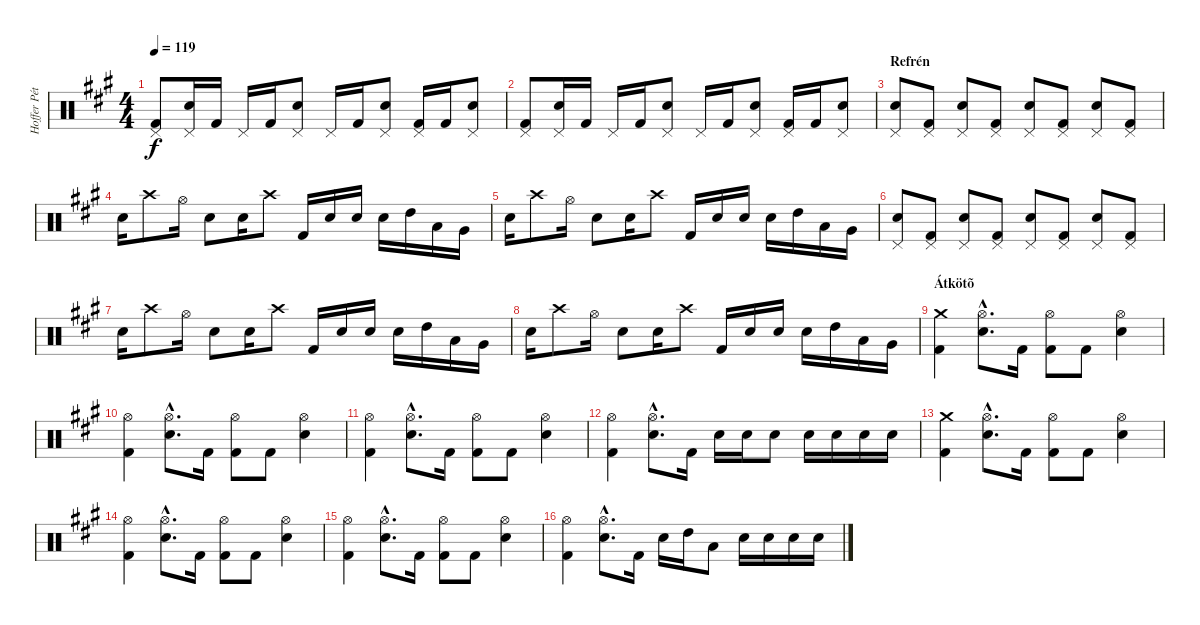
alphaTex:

\track ("Hoffer Péter" "Hoffer Pét") {instrument percussion}
\staff {score}
\articulation defaults
\ts (4 4)
\tempo 119
\clef neutral
\ks f#minor
("Pedal Hi-Hat (hit)" "Kick (hit) 2").8{dy f} ("Pedal Hi-Hat (hit)" "Snare (hit) 2").16 "Kick (hit) 2".16 "Pedal Hi-Hat (hit)".16 "Kick (hit) 2".16 ("Pedal Hi-Hat (hit)" "Snare (hit) 2").8 "Pedal Hi-Hat (hit)".16 "Kick (hit) 2".16 ("Pedal Hi-Hat (hit)" "Snare (hit) 2").8 ("Pedal Hi-Hat (hit)" "Kick (hit) 2").16 "Kick (hit) 2".16 ("Pedal Hi-Hat (hit)" "Snare (hit) 2").8 |
("Pedal Hi-Hat (hit)" "Kick (hit) 2").8 ("Pedal Hi-Hat (hit)" "Snare (hit) 2").16 "Kick (hit) 2".16 "Pedal Hi-Hat (hit)".16 "Kick (hit) 2".16 ("Pedal Hi-Hat (hit)" "Snare (hit) 2").8 "Pedal Hi-Hat (hit)".16 "Kick (hit) 2".16 ("Pedal Hi-Hat (hit)" "Snare (hit) 2").8 ("Pedal Hi-Hat (hit)" "Kick (hit) 2").16 "Kick (hit) 2".16 ("Pedal Hi-Hat (hit)" "Snare (hit) 2").8 |
\section ("" "Refrén")
("Pedal Hi-Hat (hit)" "Snare (hit) 2").8 ("Pedal Hi-Hat (hit)" "Kick (hit) 2").8 ("Pedal Hi-Hat (hit)" "Snare (hit) 2").8 ("Pedal Hi-Hat (hit)" "Kick (hit) 2").8 ("Pedal Hi-Hat (hit)" "Snare (hit) 2").8 ("Pedal Hi-Hat (hit)" "Kick (hit) 2").8 ("Pedal Hi-Hat (hit)" "Snare (hit) 2").8 ("Pedal Hi-Hat (hit)" "Kick (hit) 2").8 |
"Snare (hit) 2".16 "Crash high (hit)".8 "Hi-Hat (open)".16 "Snare (hit) 2".8 "Snare (hit) 2".16 "Crash high (hit)".8 "Kick (hit) 2".16 "Snare (hit) 2".16 "Snare (hit) 2".16 "Snare (hit) 2".16 "High Tom (hit)".16 "Low Tom (hit)".16 "Very Low Tom (hit)".16 |
"Snare (hit) 2".16 "Crash high (hit)".8 "Hi-Hat (open)".16 "Snare (hit) 2".8 "Snare (hit) 2".16 "Crash high (hit)".8 "Kick (hit) 2".16 "Snare (hit) 2".16 "Snare (hit) 2".16 "Snare (hit) 2".16 "High Tom (hit)".16 "Low Tom (hit)".16 "Very Low Tom (hit)".16 |
("Pedal Hi-Hat (hit)" "Snare (hit) 2").8 ("Pedal Hi-Hat (hit)" "Kick (hit) 2").8 ("Pedal Hi-Hat (hit)" "Snare (hit) 2").8 ("Pedal Hi-Hat (hit)" "Kick (hit) 2").8 ("Pedal Hi-Hat (hit)" "Snare (hit) 2").8 ("Pedal Hi-Hat (hit)" "Kick (hit) 2").8 ("Pedal Hi-Hat (hit)" "Snare (hit) 2").8 ("Pedal Hi-Hat (hit)" "Kick (hit) 2").8 |
"Snare (hit) 2".16 "Crash high (hit)".8 "Hi-Hat (open)".16 "Snare (hit) 2".8 "Snare (hit) 2".16 "Crash high (hit)".8 "Kick (hit) 2".16 "Snare (hit) 2".16 "Snare (hit) 2".16 "Snare (hit) 2".16 "High Tom (hit)".16 "Low Tom (hit)".16 "Very Low Tom (hit)".16 |
"Snare (hit) 2".16 "Crash high (hit)".8 "Hi-Hat (open)".16 "Snare (hit) 2".8 "Snare (hit) 2".16 "Crash high (hit)".8 "Kick (hit) 2".16 "Snare (hit) 2".16 "Snare (hit) 2".16 "Snare (hit) 2".16 "High Tom (hit)".16 "Low Tom (hit)".16 "Very Low Tom (hit)".16 |
\section ("" "Átkötõ")
("Crash medium (hit)" "Kick (hit) 2").4 ("Hi-Hat (open)"{hac} "Snare (hit) 2"{hac}).8{d} "Kick (hit) 2".16 ("Hi-Hat (open)" "Kick (hit) 2").8 "Kick (hit) 2".8 ("Hi-Hat (open)" "Snare (hit) 2").4 |
("Hi-Hat (open)" "Kick (hit) 2").4 ("Hi-Hat (open)"{hac} "Snare (hit) 2"{hac}).8{d} "Kick (hit) 2".16 ("Hi-Hat (open)" "Kick (hit) 2").8 "Kick (hit) 2".8 ("Hi-Hat (open)" "Snare (hit) 2").4 |
("Hi-Hat (open)" "Kick (hit) 2").4 ("Hi-Hat (open)"{hac} "Snare (hit) 2"{hac}).8{d} "Kick (hit) 2".16 ("Hi-Hat (open)" "Kick (hit) 2").8 "Kick (hit) 2".8 ("Hi-Hat (open)" "Snare (hit) 2").4 |
("Hi-Hat (open)" "Kick (hit) 2").4 ("Hi-Hat (open)"{hac} "Snare (hit) 2"{hac}).8{d} "Kick (hit) 2".16 "Snare (hit) 2".16 "Snare (hit) 2".16 "Snare (hit) 2".8 "Snare (hit) 2".16 "Snare (hit) 2".16 "Snare (hit) 2".16 "Snare (hit) 2".16 |
("Crash medium (hit)" "Kick (hit) 2").4 ("Hi-Hat (open)"{hac} "Snare (hit) 2"{hac}).8{d} "Kick (hit) 2".16 ("Hi-Hat (open)" "Kick (hit) 2").8 "Kick (hit) 2".8 ("Hi-Hat (open)" "Snare (hit) 2").4 |
("Hi-Hat (open)" "Kick (hit) 2").4 ("Hi-Hat (open)"{hac} "Snare (hit) 2"{hac}).8{d} "Kick (hit) 2".16 ("Hi-Hat (open)" "Kick (hit) 2").8 "Kick (hit) 2".8 ("Hi-Hat (open)" "Snare (hit) 2").4 |
("Hi-Hat (open)" "Kick (hit) 2").4 ("Hi-Hat (open)"{hac} "Snare (hit) 2"{hac}).8{d} "Kick (hit) 2".16 ("Hi-Hat (open)" "Kick (hit) 2").8 "Kick (hit) 2".8 ("Hi-Hat (open)" "Snare (hit) 2").4 |
("Hi-Hat (open)" "Kick (hit) 2").4 ("Hi-Hat (open)"{hac} "Snare (hit) 2"{hac}).8{d} "Kick (hit) 2".16 "Snare (hit) 2".16 "High Tom (hit)".16 "Low Tom (hit)".8 "Snare (hit) 2".16 "Snare (hit) 2".16 "Snare (hit) 2".16 "Snare (hit) 2".16
